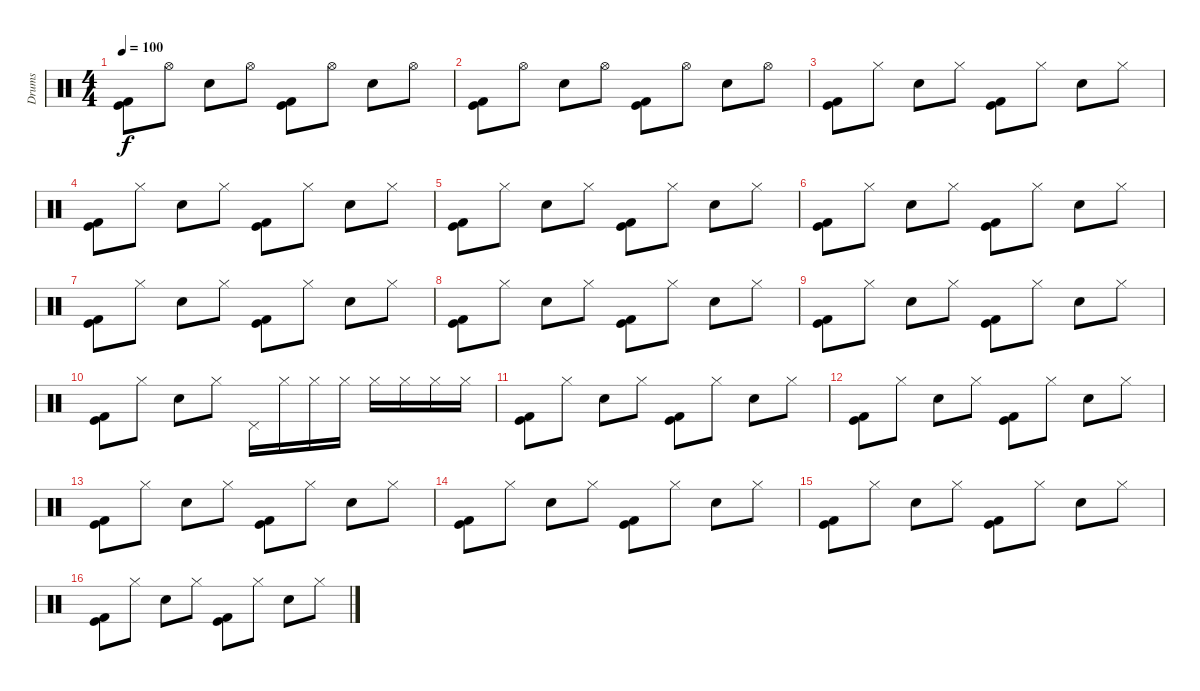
\track ("Drums" "Drums") {instrument percussion}
\staff {score}
\articulation defaults
\ts (4 4)
\tempo 100
\clef neutral
\ks c
("Kick (hit) 2" "Kick (hit)").8{dy f} "Hi-Hat (open)".8 "Snare (hit) 2".8 "Hi-Hat (open)".8 ("Kick (hit) 2" "Kick (hit)").8 "Hi-Hat (open)".8 "Snare (hit) 2".8 "Hi-Hat (open)".8 |
("Kick (hit) 2" "Kick (hit)").8 "Hi-Hat (open)".8 "Snare (hit) 2".8 "Hi-Hat (open)".8 ("Kick (hit) 2" "Kick (hit)").8 "Hi-Hat (open)".8 "Snare (hit) 2".8 "Hi-Hat (open)".8 |
("Kick (hit)" "Kick (hit) 2").8 "Hi-Hat (closed)".8 "Snare (hit) 2".8 "Hi-Hat (closed)".8 ("Kick (hit)" "Kick (hit) 2").8 "Hi-Hat (closed)".8 "Snare (hit) 2".8 "Hi-Hat (closed)".8 |
("Kick (hit)" "Kick (hit) 2").8 "Hi-Hat (closed)".8 "Snare (hit) 2".8 "Hi-Hat (closed)".8 ("Kick (hit)" "Kick (hit) 2").8 "Hi-Hat (closed)".8 "Snare (hit) 2".8 "Hi-Hat (closed)".8 |
("Kick (hit)" "Kick (hit) 2").8 "Hi-Hat (closed)".8 "Snare (hit) 2".8 "Hi-Hat (closed)".8 ("Kick (hit)" "Kick (hit) 2").8 "Hi-Hat (closed)".8 "Snare (hit) 2".8 "Hi-Hat (closed)".8 |
("Kick (hit)" "Kick (hit) 2").8 "Hi-Hat (closed)".8 "Snare (hit) 2".8 "Hi-Hat (closed)".8 ("Kick (hit)" "Kick (hit) 2").8 "Hi-Hat (closed)".8 "Snare (hit) 2".8 "Hi-Hat (closed)".8 |
("Kick (hit)" "Kick (hit) 2").8 "Hi-Hat (closed)".8 "Snare (hit) 2".8 "Hi-Hat (closed)".8 ("Kick (hit)" "Kick (hit) 2").8 "Hi-Hat (closed)".8 "Snare (hit) 2".8 "Hi-Hat (closed)".8 |
("Kick (hit)" "Kick (hit) 2").8 "Hi-Hat (closed)".8 "Snare (hit) 2".8 "Hi-Hat (closed)".8 ("Kick (hit)" "Kick (hit) 2").8 "Hi-Hat (closed)".8 "Snare (hit) 2".8 "Hi-Hat (closed)".8 |
("Kick (hit)" "Kick (hit) 2").8 "Hi-Hat (closed)".8 "Snare (hit) 2".8 "Hi-Hat (closed)".8 ("Kick (hit)" "Kick (hit) 2").8 "Hi-Hat (closed)".8 "Snare (hit) 2".8 "Hi-Hat (closed)".8 |
("Kick (hit)" "Kick (hit) 2").8 "Hi-Hat (closed)".8 "Snare (hit) 2".8 "Hi-Hat (closed)".8 "Pedal Hi-Hat (hit)".16 "Hi-Hat (closed)".16 "Hi-Hat (closed)".16 "Hi-Hat (closed)".16 "Hi-Hat (closed)".16 "Hi-Hat (closed)".16 "Hi-Hat (closed)".16 "Hi-Hat (closed)".16 |
("Kick (hit)" "Kick (hit) 2").8 "Hi-Hat (closed)".8 "Snare (hit) 2".8 "Hi-Hat (closed)".8 ("Kick (hit)" "Kick (hit) 2").8 "Hi-Hat (closed)".8 "Snare (hit) 2".8 "Hi-Hat (closed)".8 |
("Kick (hit)" "Kick (hit) 2").8 "Hi-Hat (closed)".8 "Snare (hit) 2".8 "Hi-Hat (closed)".8 ("Kick (hit)" "Kick (hit) 2").8 "Hi-Hat (closed)".8 "Snare (hit) 2".8 "Hi-Hat (closed)".8 |
("Kick (hit)" "Kick (hit) 2").8 "Hi-Hat (closed)".8 "Snare (hit) 2".8 "Hi-Hat (closed)".8 ("Kick (hit)" "Kick (hit) 2").8 "Hi-Hat (closed)".8 "Snare (hit) 2".8 "Hi-Hat (closed)".8 |
("Kick (hit)" "Kick (hit) 2").8 "Hi-Hat (closed)".8 "Snare (hit) 2".8 "Hi-Hat (closed)".8 ("Kick (hit)" "Kick (hit) 2").8 "Hi-Hat (closed)".8 "Snare (hit) 2".8 "Hi-Hat (closed)".8 |
("Kick (hit)" "Kick (hit) 2").8 "Hi-Hat (closed)".8 "Snare (hit) 2".8 "Hi-Hat (closed)".8 ("Kick (hit)" "Kick (hit) 2").8 "Hi-Hat (closed)".8 "Snare (hit) 2".8 "Hi-Hat (closed)".8 |
("Kick (hit)" "Kick (hit) 2").8 "Hi-Hat (closed)".8 "Snare (hit) 2".8 "Hi-Hat (closed)".8 ("Kick (hit)" "Kick (hit) 2").8 "Hi-Hat (closed)".8 "Snare (hit) 2".8 "Hi-Hat (closed)".8
